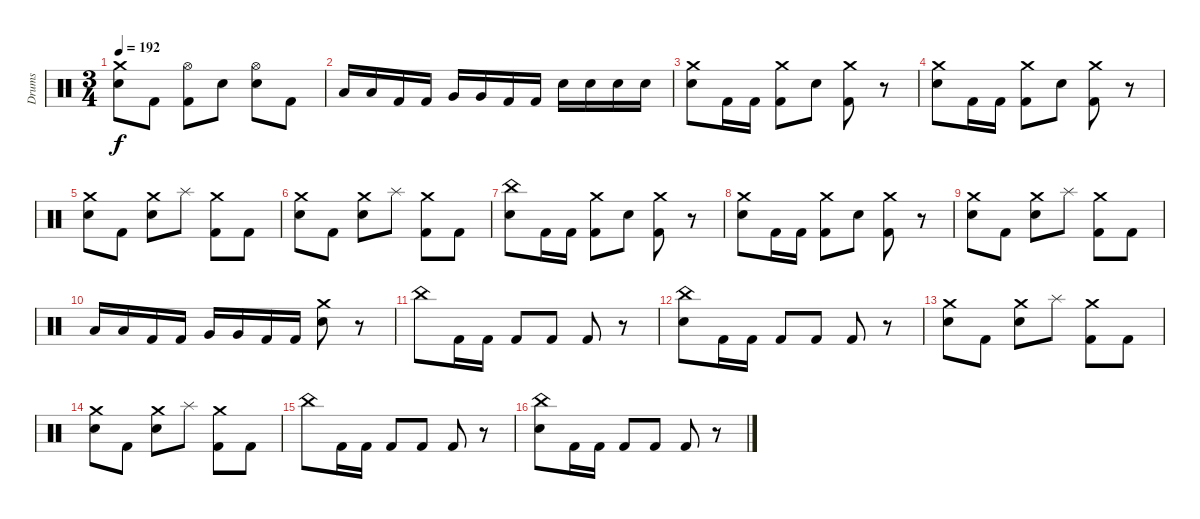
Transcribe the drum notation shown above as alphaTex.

\track ("Drums" "Drums") {instrument percussion}
\staff {score}
\articulation defaults
\ts (3 4)
\tempo 192
\clef neutral
\ks c
("Crash medium (hit)" "Electric Snare (hit)").8{dy f} "Kick (hit) 2".8 ("Hi-Hat (open)" "Kick (hit) 2").8 "Electric Snare (hit)".8 ("Hi-Hat (open)" "Electric Snare (hit)").8 "Kick (hit) 2".8 |
"Low Tom (hit)".16 "Low Tom (hit)".16 "Kick (hit) 2".16 "Kick (hit) 2".16 "Very Low Tom (hit)".16 "Very Low Tom (hit)".16 "Kick (hit) 2".16 "Kick (hit) 2".16 "Electric Snare (hit)".16 "Electric Snare (hit)".16 "Electric Snare (hit)".16 "Electric Snare (hit)".16 |
("Crash medium (hit)" "Electric Snare (hit)").8 "Kick (hit) 2".16 "Kick (hit) 2".16 ("Crash medium (hit)" "Kick (hit) 2").8 "Electric Snare (hit)".8 ("Crash medium (hit)" "Kick (hit) 2").8 r.8 |
("Crash medium (hit)" "Electric Snare (hit)").8 "Kick (hit) 2".16 "Kick (hit) 2".16 ("Crash medium (hit)" "Kick (hit) 2").8 "Electric Snare (hit)".8 ("Crash medium (hit)" "Kick (hit) 2").8 r.8 |
("Crash medium (hit)" "Electric Snare (hit)").8 "Kick (hit) 2".8 ("Crash medium (hit)" "Electric Snare (hit)").8 "Splash (hit)".8 ("Crash medium (hit)" "Kick (hit) 2").8 "Kick (hit) 2".8 |
("Crash medium (hit)" "Electric Snare (hit)").8 "Kick (hit) 2".8 ("Crash medium (hit)" "Electric Snare (hit)").8 "Splash (hit)".8 ("Crash medium (hit)" "Kick (hit) 2").8 "Kick (hit) 2".8 |
("China (hit)" "Electric Snare (hit)").8 "Kick (hit) 2".16 "Kick (hit) 2".16 ("Crash medium (hit)" "Kick (hit) 2").8 "Electric Snare (hit)".8 ("Crash medium (hit)" "Kick (hit) 2").8 r.8 |
("Crash medium (hit)" "Electric Snare (hit)").8 "Kick (hit) 2".16 "Kick (hit) 2".16 ("Crash medium (hit)" "Kick (hit) 2").8 "Electric Snare (hit)".8 ("Crash medium (hit)" "Kick (hit) 2").8 r.8 |
("Crash medium (hit)" "Electric Snare (hit)").8 "Kick (hit) 2".8 ("Crash medium (hit)" "Electric Snare (hit)").8 "Splash (hit)".8 ("Crash medium (hit)" "Kick (hit) 2").8 "Kick (hit) 2".8 |
"Low Tom (hit)".16 "Low Tom (hit)".16 "Kick (hit) 2".16 "Kick (hit) 2".16 "Very Low Tom (hit)".16 "Very Low Tom (hit)".16 "Kick (hit) 2".16 "Kick (hit) 2".16 ("Crash medium (hit)" "Electric Snare (hit)").8 r.8 |
"China (hit)".8 "Kick (hit) 2".16 "Kick (hit) 2".16 "Kick (hit) 2".8 "Kick (hit) 2".8 "Kick (hit) 2".8 r.8 |
("China (hit)" "Electric Snare (hit)").8 "Kick (hit) 2".16 "Kick (hit) 2".16 "Kick (hit) 2".8 "Kick (hit) 2".8 "Kick (hit) 2".8 r.8 |
("Crash medium (hit)" "Electric Snare (hit)").8 "Kick (hit) 2".8 ("Crash medium (hit)" "Electric Snare (hit)").8 "Splash (hit)".8 ("Crash medium (hit)" "Kick (hit) 2").8 "Kick (hit) 2".8 |
("Crash medium (hit)" "Electric Snare (hit)").8 "Kick (hit) 2".8 ("Crash medium (hit)" "Electric Snare (hit)").8 "Splash (hit)".8 ("Crash medium (hit)" "Kick (hit) 2").8 "Kick (hit) 2".8 |
"China (hit)".8 "Kick (hit) 2".16 "Kick (hit) 2".16 "Kick (hit) 2".8 "Kick (hit) 2".8 "Kick (hit) 2".8 r.8 |
("China (hit)" "Electric Snare (hit)").8 "Kick (hit) 2".16 "Kick (hit) 2".16 "Kick (hit) 2".8 "Kick (hit) 2".8 "Kick (hit) 2".8 r.8
